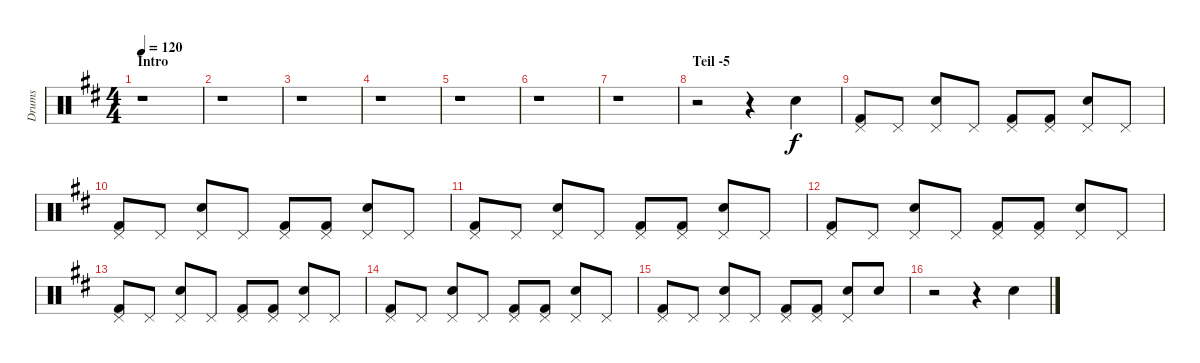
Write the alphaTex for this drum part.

\track ("Drums" "Drums") {instrument percussion}
\staff {score}
\articulation defaults
\ts (4 4)
\section ("" "Intro")
\tempo 120
\clef neutral
\ks d
r.1{dy f} |
r.1 |
r.1 |
r.1 |
r.1 |
r.1 |
r.1 |
\section ("" "Teil -5")
r.2 r.4 "Electric Snare (hit)".4 |
("Pedal Hi-Hat (hit)" "Kick (hit) 2").8 "Pedal Hi-Hat (hit)".8 ("Pedal Hi-Hat (hit)" "Electric Snare (hit)").8 "Pedal Hi-Hat (hit)".8 ("Pedal Hi-Hat (hit)" "Kick (hit) 2").8 ("Pedal Hi-Hat (hit)" "Kick (hit) 2").8 ("Pedal Hi-Hat (hit)" "Electric Snare (hit)").8 "Pedal Hi-Hat (hit)".8 |
("Pedal Hi-Hat (hit)" "Kick (hit) 2").8 "Pedal Hi-Hat (hit)".8 ("Pedal Hi-Hat (hit)" "Electric Snare (hit)").8 "Pedal Hi-Hat (hit)".8 ("Pedal Hi-Hat (hit)" "Kick (hit) 2").8 ("Pedal Hi-Hat (hit)" "Kick (hit) 2").8 ("Pedal Hi-Hat (hit)" "Electric Snare (hit)").8 "Pedal Hi-Hat (hit)".8 |
("Pedal Hi-Hat (hit)" "Kick (hit) 2").8 "Pedal Hi-Hat (hit)".8 ("Pedal Hi-Hat (hit)" "Electric Snare (hit)").8 "Pedal Hi-Hat (hit)".8 ("Pedal Hi-Hat (hit)" "Kick (hit) 2").8 ("Pedal Hi-Hat (hit)" "Kick (hit) 2").8 ("Pedal Hi-Hat (hit)" "Electric Snare (hit)").8 "Pedal Hi-Hat (hit)".8 |
("Pedal Hi-Hat (hit)" "Kick (hit) 2").8 "Pedal Hi-Hat (hit)".8 ("Pedal Hi-Hat (hit)" "Electric Snare (hit)").8 "Pedal Hi-Hat (hit)".8 ("Pedal Hi-Hat (hit)" "Kick (hit) 2").8 ("Pedal Hi-Hat (hit)" "Kick (hit) 2").8 ("Pedal Hi-Hat (hit)" "Electric Snare (hit)").8 "Pedal Hi-Hat (hit)".8 |
("Pedal Hi-Hat (hit)" "Kick (hit) 2").8 "Pedal Hi-Hat (hit)".8 ("Pedal Hi-Hat (hit)" "Electric Snare (hit)").8 "Pedal Hi-Hat (hit)".8 ("Pedal Hi-Hat (hit)" "Kick (hit) 2").8 ("Pedal Hi-Hat (hit)" "Kick (hit) 2").8 ("Pedal Hi-Hat (hit)" "Electric Snare (hit)").8 "Pedal Hi-Hat (hit)".8 |
("Pedal Hi-Hat (hit)" "Kick (hit) 2").8 "Pedal Hi-Hat (hit)".8 ("Pedal Hi-Hat (hit)" "Electric Snare (hit)").8 "Pedal Hi-Hat (hit)".8 ("Pedal Hi-Hat (hit)" "Kick (hit) 2").8 ("Pedal Hi-Hat (hit)" "Kick (hit) 2").8 ("Pedal Hi-Hat (hit)" "Electric Snare (hit)").8 "Pedal Hi-Hat (hit)".8 |
("Pedal Hi-Hat (hit)" "Kick (hit) 2").8 "Pedal Hi-Hat (hit)".8 ("Pedal Hi-Hat (hit)" "Electric Snare (hit)").8 "Pedal Hi-Hat (hit)".8 ("Pedal Hi-Hat (hit)" "Kick (hit) 2").8 ("Pedal Hi-Hat (hit)" "Kick (hit) 2").8 ("Pedal Hi-Hat (hit)" "Electric Snare (hit)").8 "Electric Snare (hit)".8 |
r.2 r.4 "Electric Snare (hit)".4
